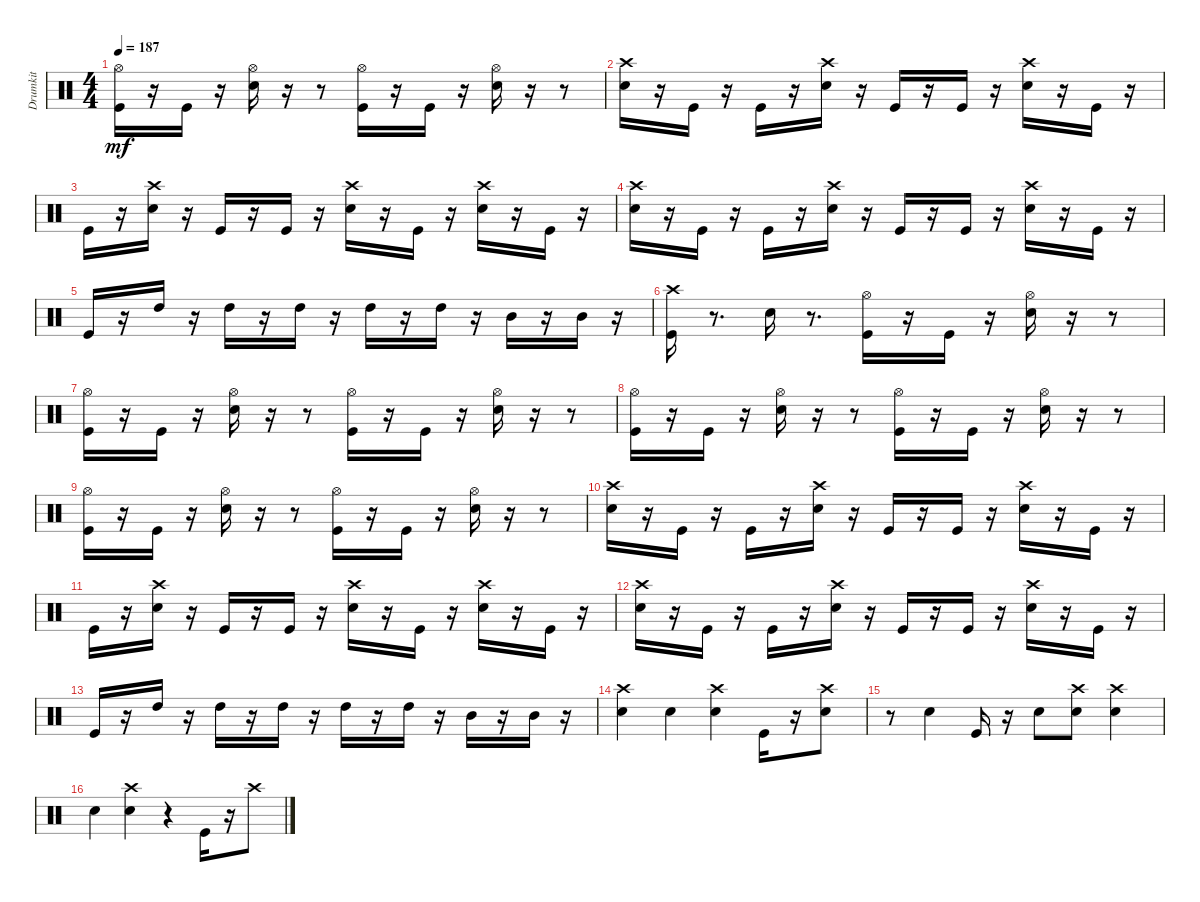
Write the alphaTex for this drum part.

\track ("Drumkit" "Drumkit") {instrument percussion}
\staff {score}
\articulation defaults
\ts (4 4)
\tempo 187
\clef neutral
\ks c
("Kick (hit)" "Hi-Hat (open)").16{dy mf} r.16 "Kick (hit)".16 r.16 ("Snare (hit) 2" "Hi-Hat (open)").16 r.16 r.8 ("Kick (hit)" "Hi-Hat (open)").16 r.16 "Kick (hit)".16 r.16 ("Snare (hit) 2" "Hi-Hat (open)").16 r.16 r.8 |
("Snare (hit) 2" "Crash high (hit)").16 r.16 "Kick (hit)".16 r.16 "Kick (hit)".16 r.16 ("Snare (hit) 2" "Crash high (hit)").16 r.16 "Kick (hit)".16 r.16 "Kick (hit)".16 r.16 ("Snare (hit) 2" "Crash high (hit)").16 r.16 "Kick (hit)".16 r.16 |
"Kick (hit)".16 r.16 ("Snare (hit) 2" "Crash high (hit)").16 r.16 "Kick (hit)".16 r.16 "Kick (hit)".16 r.16 ("Snare (hit) 2" "Crash high (hit)").16 r.16 "Kick (hit)".16 r.16 ("Snare (hit) 2" "Crash high (hit)").16 r.16 "Kick (hit)".16 r.16 |
("Snare (hit) 2" "Crash high (hit)").16 r.16 "Kick (hit)".16 r.16 "Kick (hit)".16 r.16 ("Snare (hit) 2" "Crash high (hit)").16 r.16 "Kick (hit)".16 r.16 "Kick (hit)".16 r.16 ("Snare (hit) 2" "Crash high (hit)").16 r.16 "Kick (hit)".16 r.16 |
"Kick (hit)".16 r.16 "High Tom (hit)".16 r.16 "High Tom (hit)".16 r.16 "High Tom (hit)".16 r.16 "High Tom (hit)".16 r.16 "High Tom (hit)".16 r.16 "Mid Tom (hit)".16 r.16 "Mid Tom (hit)".16 r.16 |
("Kick (hit)" "Crash high (hit)").16 r.8{d} "Snare (hit) 2".16 r.8{d} ("Kick (hit)" "Hi-Hat (open)").16 r.16 "Kick (hit)".16 r.16 ("Snare (hit) 2" "Hi-Hat (open)").16 r.16 r.8 |
("Kick (hit)" "Hi-Hat (open)").16 r.16 "Kick (hit)".16 r.16 ("Snare (hit) 2" "Hi-Hat (open)").16 r.16 r.8 ("Kick (hit)" "Hi-Hat (open)").16 r.16 "Kick (hit)".16 r.16 ("Snare (hit) 2" "Hi-Hat (open)").16 r.16 r.8 |
("Kick (hit)" "Hi-Hat (open)").16 r.16 "Kick (hit)".16 r.16 ("Snare (hit) 2" "Hi-Hat (open)").16 r.16 r.8 ("Kick (hit)" "Hi-Hat (open)").16 r.16 "Kick (hit)".16 r.16 ("Snare (hit) 2" "Hi-Hat (open)").16 r.16 r.8 |
("Kick (hit)" "Hi-Hat (open)").16 r.16 "Kick (hit)".16 r.16 ("Snare (hit) 2" "Hi-Hat (open)").16 r.16 r.8 ("Kick (hit)" "Hi-Hat (open)").16 r.16 "Kick (hit)".16 r.16 ("Snare (hit) 2" "Hi-Hat (open)").16 r.16 r.8 |
("Snare (hit) 2" "Crash high (hit)").16 r.16 "Kick (hit)".16 r.16 "Kick (hit)".16 r.16 ("Snare (hit) 2" "Crash high (hit)").16 r.16 "Kick (hit)".16 r.16 "Kick (hit)".16 r.16 ("Snare (hit) 2" "Crash high (hit)").16 r.16 "Kick (hit)".16 r.16 |
"Kick (hit)".16 r.16 ("Snare (hit) 2" "Crash high (hit)").16 r.16 "Kick (hit)".16 r.16 "Kick (hit)".16 r.16 ("Snare (hit) 2" "Crash high (hit)").16 r.16 "Kick (hit)".16 r.16 ("Snare (hit) 2" "Crash high (hit)").16 r.16 "Kick (hit)".16 r.16 |
("Snare (hit) 2" "Crash high (hit)").16 r.16 "Kick (hit)".16 r.16 "Kick (hit)".16 r.16 ("Snare (hit) 2" "Crash high (hit)").16 r.16 "Kick (hit)".16 r.16 "Kick (hit)".16 r.16 ("Snare (hit) 2" "Crash high (hit)").16 r.16 "Kick (hit)".16 r.16 |
"Kick (hit)".16 r.16 "High Tom (hit)".16 r.16 "High Tom (hit)".16 r.16 "High Tom (hit)".16 r.16 "High Tom (hit)".16 r.16 "High Tom (hit)".16 r.16 "Mid Tom (hit)".16 r.16 "Mid Tom (hit)".16 r.16 |
("Crash high (hit)" "Snare (hit) 2").4 "Snare (hit) 2".4 ("Crash high (hit)" "Snare (hit) 2").4 "Kick (hit)".16 r.16 ("Crash high (hit)" "Snare (hit) 2").8 |
r.8 "Snare (hit) 2".4 "Kick (hit)".16 r.16 "Snare (hit) 2".8 ("Crash high (hit)" "Snare (hit) 2").8 ("Crash high (hit)" "Snare (hit) 2").4 |
"Snare (hit) 2".4 ("Crash high (hit)" "Snare (hit) 2").4 r.4 "Kick (hit)".16 r.16 "Crash high (hit)".8
